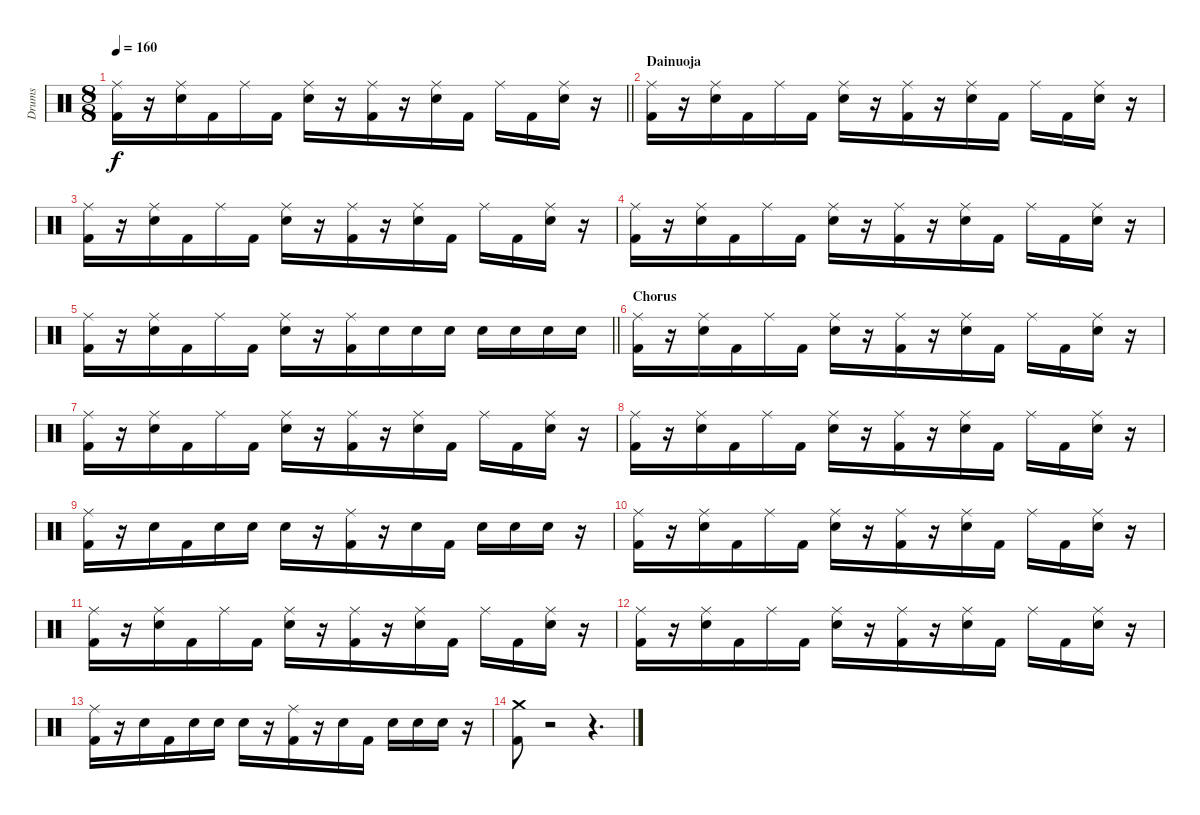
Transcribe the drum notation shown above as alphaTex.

\track ("Drums" "Drums") {instrument percussion}
\staff {score}
\articulation defaults
\ts (8 8)
\tempo 160
\clef neutral
\barLineRight lightlight
\ks c
("Ride (middle)" "Kick (hit) 2").16{dy f} r.16 ("Ride (middle)" "Snare (hit) 2").16 "Kick (hit) 2".16 "Ride (middle)".16 "Kick (hit) 2".16 ("Ride (middle)" "Snare (hit) 2").16 r.16 ("Ride (middle)" "Kick (hit) 2").16 r.16 ("Ride (middle)" "Snare (hit) 2").16 "Kick (hit) 2".16 "Ride (middle)".16 "Kick (hit) 2".16 ("Ride (middle)" "Snare (hit) 2").16 r.16 |
\section ("" "Dainuoja")
("Ride (middle)" "Kick (hit) 2").16 r.16 ("Ride (middle)" "Snare (hit) 2").16 "Kick (hit) 2".16 "Ride (middle)".16 "Kick (hit) 2".16 ("Ride (middle)" "Snare (hit) 2").16 r.16 ("Ride (middle)" "Kick (hit) 2").16 r.16 ("Ride (middle)" "Snare (hit) 2").16 "Kick (hit) 2".16 "Ride (middle)".16 "Kick (hit) 2".16 ("Ride (middle)" "Snare (hit) 2").16 r.16 |
("Ride (middle)" "Kick (hit) 2").16 r.16 ("Ride (middle)" "Snare (hit) 2").16 "Kick (hit) 2".16 "Ride (middle)".16 "Kick (hit) 2".16 ("Ride (middle)" "Snare (hit) 2").16 r.16 ("Ride (middle)" "Kick (hit) 2").16 r.16 ("Ride (middle)" "Snare (hit) 2").16 "Kick (hit) 2".16 "Ride (middle)".16 "Kick (hit) 2".16 ("Ride (middle)" "Snare (hit) 2").16 r.16 |
("Ride (middle)" "Kick (hit) 2").16 r.16 ("Ride (middle)" "Snare (hit) 2").16 "Kick (hit) 2".16 "Ride (middle)".16 "Kick (hit) 2".16 ("Ride (middle)" "Snare (hit) 2").16 r.16 ("Ride (middle)" "Kick (hit) 2").16 r.16 ("Ride (middle)" "Snare (hit) 2").16 "Kick (hit) 2".16 "Ride (middle)".16 "Kick (hit) 2".16 ("Ride (middle)" "Snare (hit) 2").16 r.16 |
\barLineRight lightlight
("Ride (middle)" "Kick (hit) 2").16 r.16 ("Ride (middle)" "Snare (hit) 2").16 "Kick (hit) 2".16 "Ride (middle)".16 "Kick (hit) 2".16 ("Ride (middle)" "Snare (hit) 2").16 r.16 ("Ride (middle)" "Kick (hit) 2").16 "Snare (hit) 2".16 "Snare (hit) 2".16 "Snare (hit) 2".16 "Snare (hit) 2".16 "Snare (hit) 2".16 "Snare (hit) 2".16 "Snare (hit) 2".16 |
\section ("" "Chorus")
("Ride (middle)" "Kick (hit) 2").16 r.16 ("Ride (middle)" "Snare (hit) 2").16 "Kick (hit) 2".16 "Ride (middle)".16 "Kick (hit) 2".16 ("Ride (middle)" "Snare (hit) 2").16 r.16 ("Ride (middle)" "Kick (hit) 2").16 r.16 ("Ride (middle)" "Snare (hit) 2").16 "Kick (hit) 2".16 "Ride (middle)".16 "Kick (hit) 2".16 ("Ride (middle)" "Snare (hit) 2").16 r.16 |
("Ride (middle)" "Kick (hit) 2").16 r.16 ("Ride (middle)" "Snare (hit) 2").16 "Kick (hit) 2".16 "Ride (middle)".16 "Kick (hit) 2".16 ("Ride (middle)" "Snare (hit) 2").16 r.16 ("Ride (middle)" "Kick (hit) 2").16 r.16 ("Ride (middle)" "Snare (hit) 2").16 "Kick (hit) 2".16 "Ride (middle)".16 "Kick (hit) 2".16 ("Ride (middle)" "Snare (hit) 2").16 r.16 |
("Ride (middle)" "Kick (hit) 2").16 r.16 ("Ride (middle)" "Snare (hit) 2").16 "Kick (hit) 2".16 "Ride (middle)".16 "Kick (hit) 2".16 ("Ride (middle)" "Snare (hit) 2").16 r.16 ("Ride (middle)" "Kick (hit) 2").16 r.16 ("Ride (middle)" "Snare (hit) 2").16 "Kick (hit) 2".16 "Ride (middle)".16 "Kick (hit) 2".16 ("Ride (middle)" "Snare (hit) 2").16 r.16 |
("Ride (middle)" "Kick (hit) 2").16 r.16 "Snare (hit) 2".16 "Kick (hit) 2".16 "Snare (hit) 2".16 "Snare (hit) 2".16 "Snare (hit) 2".16 r.16 ("Ride (middle)" "Kick (hit) 2").16 r.16 "Snare (hit) 2".16 "Kick (hit) 2".16 "Snare (hit) 2".16 "Snare (hit) 2".16 "Snare (hit) 2".16 r.16 |
("Ride (middle)" "Kick (hit) 2").16 r.16 ("Ride (middle)" "Snare (hit) 2").16 "Kick (hit) 2".16 "Ride (middle)".16 "Kick (hit) 2".16 ("Ride (middle)" "Snare (hit) 2").16 r.16 ("Ride (middle)" "Kick (hit) 2").16 r.16 ("Ride (middle)" "Snare (hit) 2").16 "Kick (hit) 2".16 "Ride (middle)".16 "Kick (hit) 2".16 ("Ride (middle)" "Snare (hit) 2").16 r.16 |
("Ride (middle)" "Kick (hit) 2").16 r.16 ("Ride (middle)" "Snare (hit) 2").16 "Kick (hit) 2".16 "Ride (middle)".16 "Kick (hit) 2".16 ("Ride (middle)" "Snare (hit) 2").16 r.16 ("Ride (middle)" "Kick (hit) 2").16 r.16 ("Ride (middle)" "Snare (hit) 2").16 "Kick (hit) 2".16 "Ride (middle)".16 "Kick (hit) 2".16 ("Ride (middle)" "Snare (hit) 2").16 r.16 |
("Ride (middle)" "Kick (hit) 2").16 r.16 ("Ride (middle)" "Snare (hit) 2").16 "Kick (hit) 2".16 "Ride (middle)".16 "Kick (hit) 2".16 ("Ride (middle)" "Snare (hit) 2").16 r.16 ("Ride (middle)" "Kick (hit) 2").16 r.16 ("Ride (middle)" "Snare (hit) 2").16 "Kick (hit) 2".16 "Ride (middle)".16 "Kick (hit) 2".16 ("Ride (middle)" "Snare (hit) 2").16 r.16 |
("Ride (middle)" "Kick (hit) 2").16 r.16 "Snare (hit) 2".16 "Kick (hit) 2".16 "Snare (hit) 2".16 "Snare (hit) 2".16 "Snare (hit) 2".16 r.16 ("Ride (middle)" "Kick (hit) 2").16 r.16 "Snare (hit) 2".16 "Kick (hit) 2".16 "Snare (hit) 2".16 "Snare (hit) 2".16 "Snare (hit) 2".16 r.16 |
("Crash medium (hit)" "Kick (hit) 2").8 r.2 r.4{d}
